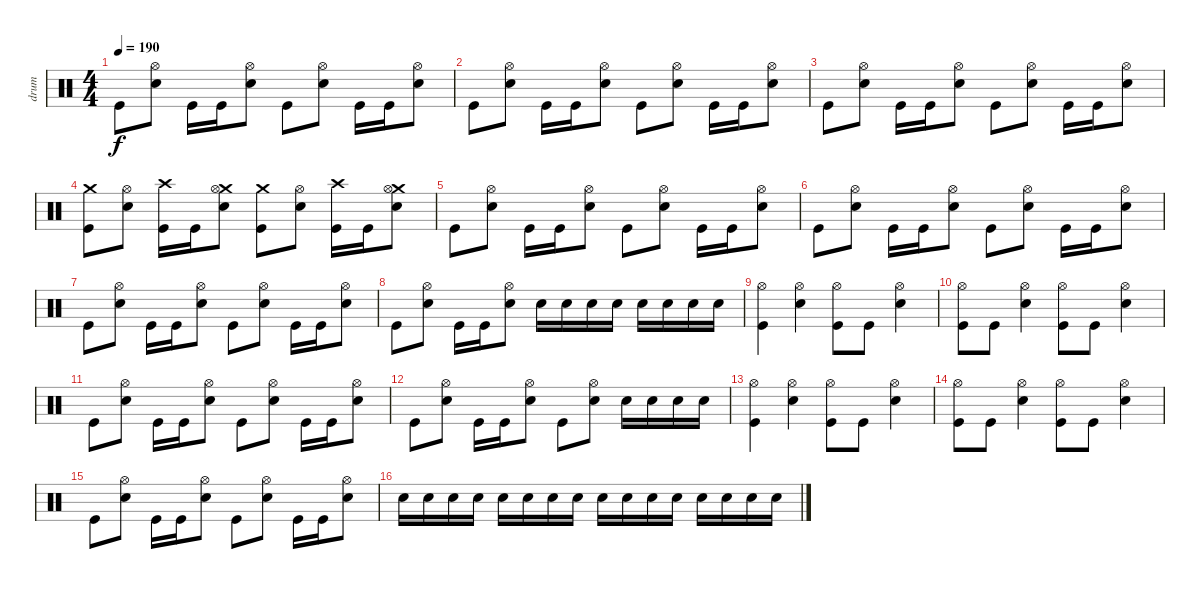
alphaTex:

\track ("drum" "drum") {instrument percussion}
\staff {score}
\articulation defaults
\ts (4 4)
\tempo 190
\clef neutral
\ks c "Kick (hit)".8{dy f}
("Hi-Hat (open)" "Snare (hit) 2").8 "Kick (hit)".16 "Kick (hit)".16 ("Hi-Hat (open)" "Snare (hit) 2").8 "Kick (hit)".8 ("Hi-Hat (open)" "Snare (hit) 2").8 "Kick (hit)".16 "Kick (hit)".16 ("Hi-Hat (open)" "Snare (hit) 2").8 |
"Kick (hit)".8 ("Hi-Hat (open)" "Snare (hit) 2").8 "Kick (hit)".16 "Kick (hit)".16 ("Hi-Hat (open)" "Snare (hit) 2").8 "Kick (hit)".8 ("Hi-Hat (open)" "Snare (hit) 2").8 "Kick (hit)".16 "Kick (hit)".16 ("Hi-Hat (open)" "Snare (hit) 2").8 |
"Kick (hit)".8 ("Hi-Hat (open)" "Snare (hit) 2").8 "Kick (hit)".16 "Kick (hit)".16 ("Hi-Hat (open)" "Snare (hit) 2").8 "Kick (hit)".8 ("Hi-Hat (open)" "Snare (hit) 2").8 "Kick (hit)".16 "Kick (hit)".16 ("Hi-Hat (open)" "Snare (hit) 2").8 |
("Crash medium (hit)" "Kick (hit)").8 ("Hi-Hat (open)" "Snare (hit) 2").8 ("Crash high (hit)" "Kick (hit)").16 "Kick (hit)".16 ("Crash medium (hit)" "Hi-Hat (open)" "Snare (hit) 2").8 ("Crash medium (hit)" "Kick (hit)").8 ("Hi-Hat (open)" "Snare (hit) 2").8 ("Crash high (hit)" "Kick (hit)").16 "Kick (hit)".16 ("Crash medium (hit)" "Hi-Hat (open)" "Snare (hit) 2").8 |
"Kick (hit)".8 ("Hi-Hat (open)" "Snare (hit) 2").8 "Kick (hit)".16 "Kick (hit)".16 ("Hi-Hat (open)" "Snare (hit) 2").8 "Kick (hit)".8 ("Hi-Hat (open)" "Snare (hit) 2").8 "Kick (hit)".16 "Kick (hit)".16 ("Hi-Hat (open)" "Snare (hit) 2").8 |
"Kick (hit)".8 ("Hi-Hat (open)" "Snare (hit) 2").8 "Kick (hit)".16 "Kick (hit)".16 ("Hi-Hat (open)" "Snare (hit) 2").8 "Kick (hit)".8 ("Hi-Hat (open)" "Snare (hit) 2").8 "Kick (hit)".16 "Kick (hit)".16 ("Hi-Hat (open)" "Snare (hit) 2").8 |
"Kick (hit)".8 ("Hi-Hat (open)" "Snare (hit) 2").8 "Kick (hit)".16 "Kick (hit)".16 ("Hi-Hat (open)" "Snare (hit) 2").8 "Kick (hit)".8 ("Hi-Hat (open)" "Snare (hit) 2").8 "Kick (hit)".16 "Kick (hit)".16 ("Hi-Hat (open)" "Snare (hit) 2").8 |
"Kick (hit)".8 ("Hi-Hat (open)" "Snare (hit) 2").8 "Kick (hit)".16 "Kick (hit)".16 ("Hi-Hat (open)" "Snare (hit) 2").8 "Snare (hit) 2".16 "Snare (hit) 2".16 "Snare (hit) 2".16 "Snare (hit) 2".16 "Snare (hit) 2".16 "Snare (hit) 2".16 "Snare (hit) 2".16 "Snare (hit) 2".16 |
("Hi-Hat (open)" "Kick (hit)").4 ("Hi-Hat (open)" "Snare (hit) 2").4 ("Hi-Hat (open)" "Kick (hit)").8 "Kick (hit)".8 ("Hi-Hat (open)" "Snare (hit) 2").4 |
("Hi-Hat (open)" "Kick (hit)").8 "Kick (hit)".8 ("Hi-Hat (open)" "Snare (hit) 2").4 ("Hi-Hat (open)" "Kick (hit)").8 "Kick (hit)".8 ("Hi-Hat (open)" "Snare (hit) 2").4 |
"Kick (hit)".8 ("Hi-Hat (open)" "Snare (hit) 2").8 "Kick (hit)".16 "Kick (hit)".16 ("Hi-Hat (open)" "Snare (hit) 2").8 "Kick (hit)".8 ("Hi-Hat (open)" "Snare (hit) 2").8 "Kick (hit)".16 "Kick (hit)".16 ("Hi-Hat (open)" "Snare (hit) 2").8 |
"Kick (hit)".8 ("Hi-Hat (open)" "Snare (hit) 2").8 "Kick (hit)".16 "Kick (hit)".16 ("Hi-Hat (open)" "Snare (hit) 2").8 "Kick (hit)".8 ("Hi-Hat (open)" "Snare (hit) 2").8 "Snare (hit) 2".16 "Snare (hit) 2".16 "Snare (hit) 2".16 "Snare (hit) 2".16 |
("Hi-Hat (open)" "Kick (hit)").4 ("Hi-Hat (open)" "Snare (hit) 2").4 ("Hi-Hat (open)" "Kick (hit)").8 "Kick (hit)".8 ("Hi-Hat (open)" "Snare (hit) 2").4 |
("Hi-Hat (open)" "Kick (hit)").8 "Kick (hit)".8 ("Hi-Hat (open)" "Snare (hit) 2").4 ("Hi-Hat (open)" "Kick (hit)").8 "Kick (hit)".8 ("Hi-Hat (open)" "Snare (hit) 2").4 |
"Kick (hit)".8 ("Hi-Hat (open)" "Snare (hit) 2").8 "Kick (hit)".16 "Kick (hit)".16 ("Hi-Hat (open)" "Snare (hit) 2").8 "Kick (hit)".8 ("Hi-Hat (open)" "Snare (hit) 2").8 "Kick (hit)".16 "Kick (hit)".16 ("Hi-Hat (open)" "Snare (hit) 2").8 |
"Snare (hit) 2".16 "Snare (hit) 2".16 "Snare (hit) 2".16 "Snare (hit) 2".16 "Snare (hit) 2".16 "Snare (hit) 2".16 "Snare (hit) 2".16 "Snare (hit) 2".16 "Snare (hit) 2".16 "Snare (hit) 2".16 "Snare (hit) 2".16 "Snare (hit) 2".16 "Snare (hit) 2".16 "Snare (hit) 2".16 "Snare (hit) 2".16 "Snare (hit) 2".16
